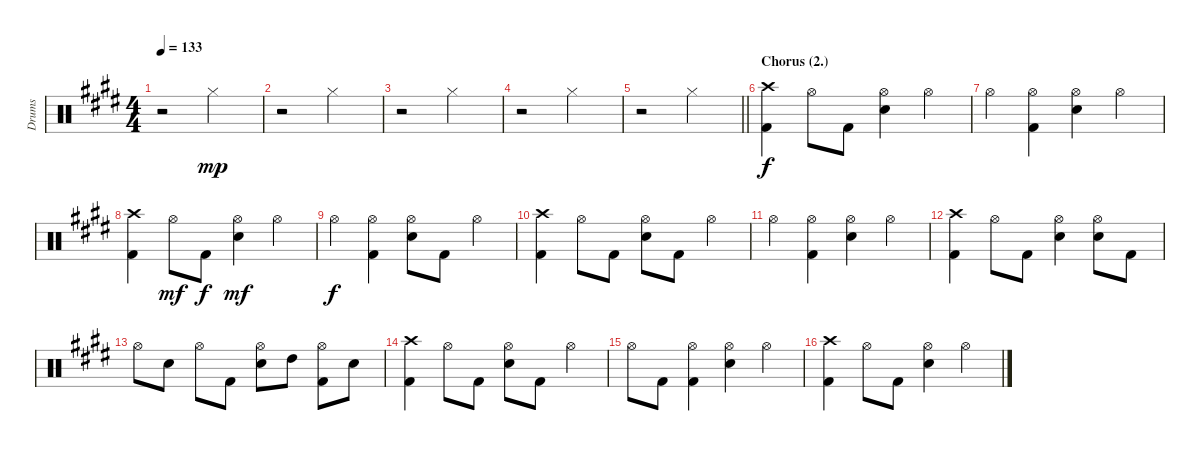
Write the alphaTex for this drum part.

\track ("Drums" "Drums") {instrument percussion}
\staff {score}
\articulation defaults
\ts (4 4)
\tempo 133
\clef neutral
\ks e
r.2{dy mp} "Hi-Hat (closed)".2 |
r.2 "Hi-Hat (closed)".2 |
r.2 "Hi-Hat (closed)".2 |
r.2 "Hi-Hat (closed)".2 |
\barLineRight lightlight
r.2 "Hi-Hat (closed)".2 |
\section ("" "Chorus (2.)")
("Crash high (hit)" "Kick (hit) 2").4{dy f volume 11} "Hi-Hat (open)".8 "Kick (hit) 2".8 ("Hi-Hat (open)" "Electric Snare (hit)").4 "Hi-Hat (open)".4 |
"Hi-Hat (open)".4 ("Hi-Hat (open)" "Kick (hit) 2").4 ("Hi-Hat (open)" "Electric Snare (hit)").4 "Hi-Hat (open)".4 |
("Crash high (hit)" "Kick (hit) 2").4 "Hi-Hat (open)".8{dy mf} "Kick (hit) 2".8{dy f} ("Hi-Hat (open)" "Electric Snare (hit)").4{dy mf} "Hi-Hat (open)".4 |
"Hi-Hat (open)".4{dy f} ("Hi-Hat (open)" "Kick (hit) 2").4 ("Hi-Hat (open)" "Electric Snare (hit)").8 "Kick (hit) 2".8 "Hi-Hat (open)".4 |
("Crash high (hit)" "Kick (hit) 2").4 "Hi-Hat (open)".8 "Kick (hit) 2".8 ("Hi-Hat (open)" "Electric Snare (hit)").8 "Kick (hit) 2".8 "Hi-Hat (open)".4 |
"Hi-Hat (open)".4 ("Hi-Hat (open)" "Kick (hit) 2").4 ("Hi-Hat (open)" "Electric Snare (hit)").4 "Hi-Hat (open)".4 |
("Crash high (hit)" "Kick (hit) 2").4 "Hi-Hat (open)".8 "Kick (hit) 2".8 ("Hi-Hat (open)" "Electric Snare (hit)").4 ("Hi-Hat (open)" "Electric Snare (hit)").8 "Kick (hit) 2".8 |
"Hi-Hat (open)".8 "Electric Snare (hit)".8 "Hi-Hat (open)".8 "Kick (hit) 2".8 ("Hi-Hat (open)" "Electric Snare (hit)").8 "High Tom (hit)".8 ("Hi-Hat (open)" "Kick (hit) 2").8 "Electric Snare (hit)".8 |
("Crash high (hit)" "Kick (hit) 2").4 "Hi-Hat (open)".8 "Kick (hit) 2".8 ("Hi-Hat (open)" "Electric Snare (hit)").8 "Kick (hit) 2".8 "Hi-Hat (open)".4 |
"Hi-Hat (open)".8 "Kick (hit) 2".8 ("Hi-Hat (open)" "Kick (hit) 2").4 ("Hi-Hat (open)" "Electric Snare (hit)").4 "Hi-Hat (open)".4 |
("Crash high (hit)" "Kick (hit) 2").4 "Hi-Hat (open)".8 "Kick (hit) 2".8 ("Hi-Hat (open)" "Electric Snare (hit)").4 "Hi-Hat (open)".4
